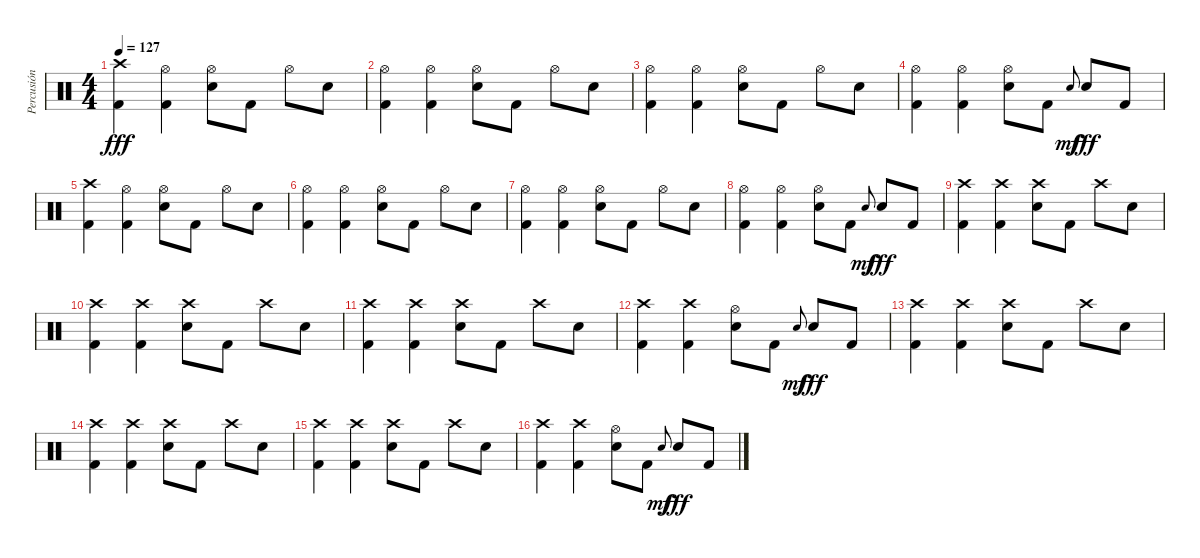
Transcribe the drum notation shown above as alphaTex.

\track ("Percusión" "Percusión") {instrument percussion}
\staff {score}
\articulation defaults
\ts (4 4)
\tempo 127
\clef neutral
\ks c
("Crash high (hit)" "Kick (hit) 2").4{dy fff} ("Hi-Hat (open)" "Kick (hit) 2").4 ("Hi-Hat (open)" "Electric Snare (hit)").8 "Kick (hit) 2".8 "Hi-Hat (open)".8 "Electric Snare (hit)".8 |
("Hi-Hat (open)" "Kick (hit) 2").4 ("Hi-Hat (open)" "Kick (hit) 2").4 ("Hi-Hat (open)" "Electric Snare (hit)").8 "Kick (hit) 2".8 "Hi-Hat (open)".8 "Electric Snare (hit)".8 |
("Hi-Hat (open)" "Kick (hit) 2").4 ("Hi-Hat (open)" "Kick (hit) 2").4 ("Hi-Hat (open)" "Electric Snare (hit)").8 "Kick (hit) 2".8 "Hi-Hat (open)".8 "Electric Snare (hit)".8 |
("Hi-Hat (open)" "Kick (hit) 2").4 ("Hi-Hat (open)" "Kick (hit) 2").4 ("Hi-Hat (open)" "Electric Snare (hit)").8 "Kick (hit) 2".8 "Electric Snare (hit)".8{gr onbeat dy mf} "Electric Snare (hit)".8{dy fff} "Kick (hit) 2".8 |
("Crash high (hit)" "Kick (hit) 2").4 ("Hi-Hat (open)" "Kick (hit) 2").4 ("Hi-Hat (open)" "Electric Snare (hit)").8 "Kick (hit) 2".8 "Hi-Hat (open)".8 "Electric Snare (hit)".8 |
("Hi-Hat (open)" "Kick (hit) 2").4 ("Hi-Hat (open)" "Kick (hit) 2").4 ("Hi-Hat (open)" "Electric Snare (hit)").8 "Kick (hit) 2".8 "Hi-Hat (open)".8 "Electric Snare (hit)".8 |
("Hi-Hat (open)" "Kick (hit) 2").4 ("Hi-Hat (open)" "Kick (hit) 2").4 ("Hi-Hat (open)" "Electric Snare (hit)").8 "Kick (hit) 2".8 "Hi-Hat (open)".8 "Electric Snare (hit)".8 |
("Hi-Hat (open)" "Kick (hit) 2").4 ("Hi-Hat (open)" "Kick (hit) 2").4 ("Hi-Hat (open)" "Electric Snare (hit)").8 "Kick (hit) 2".8 "Electric Snare (hit)".8{gr onbeat dy mf} "Electric Snare (hit)".8{dy fff} "Kick (hit) 2".8 |
("Crash high (hit)" "Kick (hit) 2").4 ("Crash high (hit)" "Kick (hit) 2").4 ("Crash high (hit)" "Electric Snare (hit)").8 "Kick (hit) 2".8 "Crash high (hit)".8 "Electric Snare (hit)".8 |
("Crash high (hit)" "Kick (hit) 2").4 ("Crash high (hit)" "Kick (hit) 2").4 ("Crash high (hit)" "Electric Snare (hit)").8 "Kick (hit) 2".8 "Crash high (hit)".8 "Electric Snare (hit)".8 |
("Crash high (hit)" "Kick (hit) 2").4 ("Crash high (hit)" "Kick (hit) 2").4 ("Crash high (hit)" "Electric Snare (hit)").8 "Kick (hit) 2".8 "Crash high (hit)".8 "Electric Snare (hit)".8 |
("Crash high (hit)" "Kick (hit) 2").4 ("Crash high (hit)" "Kick (hit) 2").4 ("Hi-Hat (open)" "Electric Snare (hit)").8 "Kick (hit) 2".8 "Electric Snare (hit)".8{gr onbeat dy mf} "Electric Snare (hit)".8{dy fff} "Kick (hit) 2".8 |
("Crash high (hit)" "Kick (hit) 2").4 ("Crash high (hit)" "Kick (hit) 2").4 ("Crash high (hit)" "Electric Snare (hit)").8 "Kick (hit) 2".8 "Crash high (hit)".8 "Electric Snare (hit)".8 |
("Crash high (hit)" "Kick (hit) 2").4 ("Crash high (hit)" "Kick (hit) 2").4 ("Crash high (hit)" "Electric Snare (hit)").8 "Kick (hit) 2".8 "Crash high (hit)".8 "Electric Snare (hit)".8 |
("Crash high (hit)" "Kick (hit) 2").4 ("Crash high (hit)" "Kick (hit) 2").4 ("Crash high (hit)" "Electric Snare (hit)").8 "Kick (hit) 2".8 "Crash high (hit)".8 "Electric Snare (hit)".8 |
("Crash high (hit)" "Kick (hit) 2").4 ("Crash high (hit)" "Kick (hit) 2").4 ("Hi-Hat (open)" "Electric Snare (hit)").8 "Kick (hit) 2".8 "Electric Snare (hit)".8{gr onbeat dy mf} "Electric Snare (hit)".8{dy fff} "Kick (hit) 2".8
